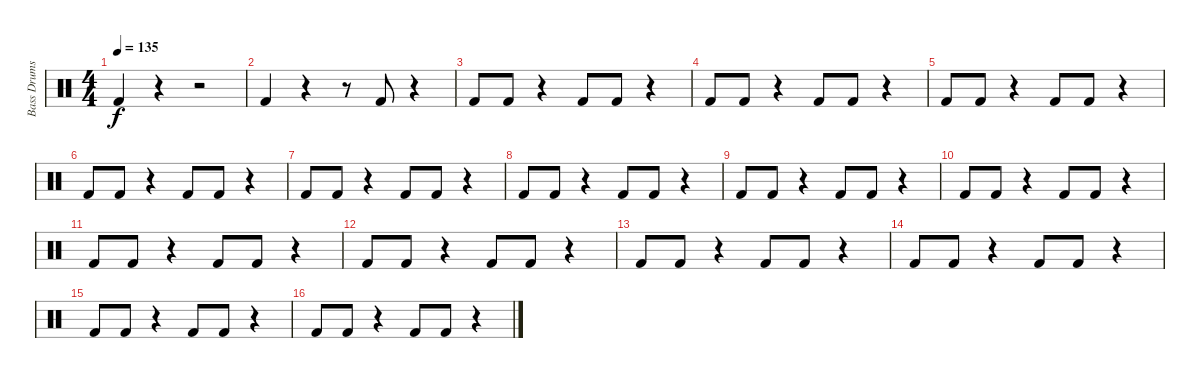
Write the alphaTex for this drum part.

\track ("Bass Drums" "Bass Drums") {instrument percussion}
\staff {score}
\articulation defaults
\ts (4 4)
\tempo 135
\clef neutral
\ks c "Kick (hit) 2".4{dy f}
r.4 r.2 |
"Kick (hit) 2".4 r.4 r.8 "Kick (hit) 2".8 r.4 |
"Kick (hit) 2".8 "Kick (hit) 2".8 r.4 "Kick (hit) 2".8 "Kick (hit) 2".8 r.4 |
"Kick (hit) 2".8 "Kick (hit) 2".8 r.4 "Kick (hit) 2".8 "Kick (hit) 2".8 r.4 |
"Kick (hit) 2".8 "Kick (hit) 2".8 r.4 "Kick (hit) 2".8 "Kick (hit) 2".8 r.4 |
"Kick (hit) 2".8 "Kick (hit) 2".8 r.4 "Kick (hit) 2".8 "Kick (hit) 2".8 r.4 |
"Kick (hit) 2".8 "Kick (hit) 2".8 r.4 "Kick (hit) 2".8 "Kick (hit) 2".8 r.4 |
"Kick (hit) 2".8 "Kick (hit) 2".8 r.4 "Kick (hit) 2".8 "Kick (hit) 2".8 r.4 |
"Kick (hit) 2".8 "Kick (hit) 2".8 r.4 "Kick (hit) 2".8 "Kick (hit) 2".8 r.4 |
"Kick (hit) 2".8 "Kick (hit) 2".8 r.4 "Kick (hit) 2".8 "Kick (hit) 2".8 r.4 |
"Kick (hit) 2".8 "Kick (hit) 2".8 r.4 "Kick (hit) 2".8 "Kick (hit) 2".8 r.4 |
"Kick (hit) 2".8 "Kick (hit) 2".8 r.4 "Kick (hit) 2".8 "Kick (hit) 2".8 r.4 |
"Kick (hit) 2".8 "Kick (hit) 2".8 r.4 "Kick (hit) 2".8 "Kick (hit) 2".8 r.4 |
"Kick (hit) 2".8 "Kick (hit) 2".8 r.4 "Kick (hit) 2".8 "Kick (hit) 2".8 r.4 |
"Kick (hit) 2".8 "Kick (hit) 2".8 r.4 "Kick (hit) 2".8 "Kick (hit) 2".8 r.4 |
"Kick (hit) 2".8 "Kick (hit) 2".8 r.4 "Kick (hit) 2".8 "Kick (hit) 2".8 r.4
